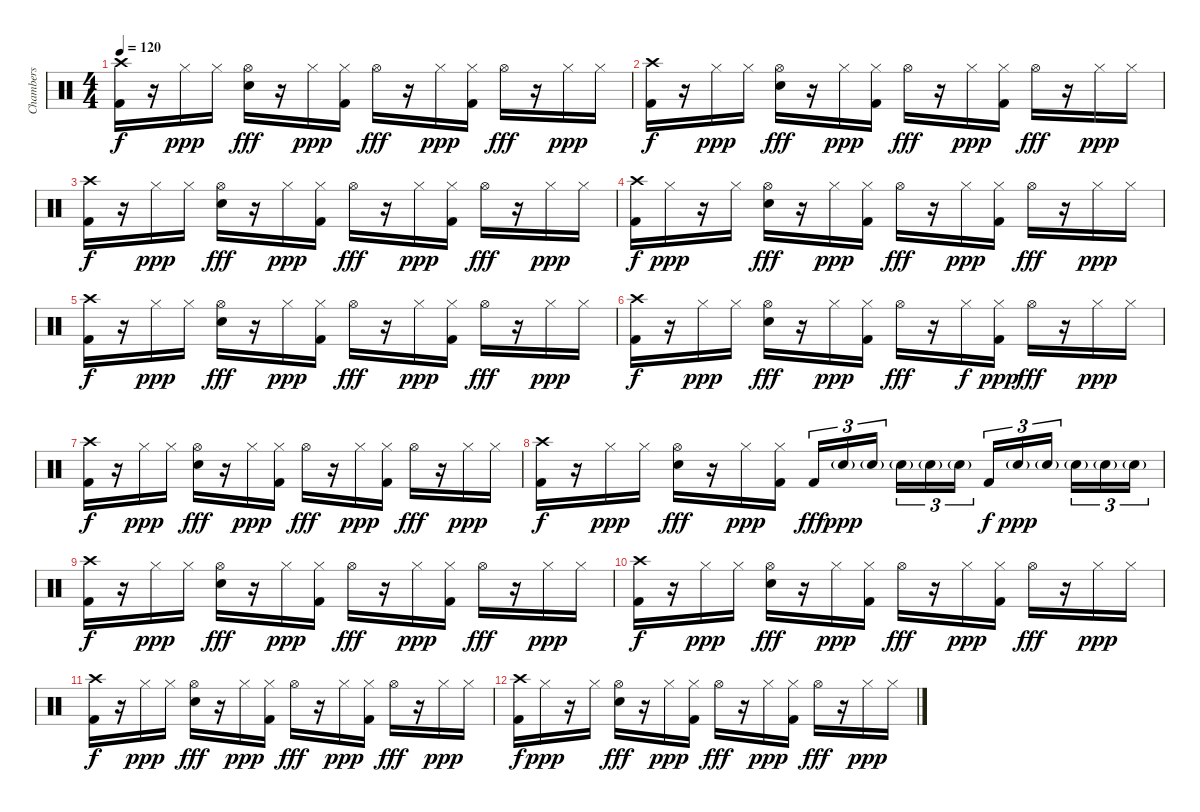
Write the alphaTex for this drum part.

\track ("Chambers" "Chambers") {instrument percussion}
\staff {score}
\articulation defaults
\ts (4 4)
\tempo 120
\clef neutral
\ks c
("Crash high (hit)" "Kick (hit) 2").16{dy f} r.16 "Hi-Hat (closed)".16{dy ppp} "Hi-Hat (closed)".16 ("Hi-Hat (open)" "Electric Snare (hit)").16{dy fff} r.16 "Hi-Hat (closed)".16{dy ppp} ("Hi-Hat (closed)" "Kick (hit) 2").16 "Hi-Hat (open)".16{dy fff} r.16 "Hi-Hat (closed)".16{dy ppp} ("Hi-Hat (closed)" "Kick (hit) 2").16 "Hi-Hat (open)".16{dy fff} r.16 "Hi-Hat (closed)".16{dy ppp} "Hi-Hat (closed)".16 |
("Crash high (hit)" "Kick (hit) 2").16{dy f} r.16 "Hi-Hat (closed)".16{dy ppp} "Hi-Hat (closed)".16 ("Hi-Hat (open)" "Electric Snare (hit)").16{dy fff} r.16 "Hi-Hat (closed)".16{dy ppp} ("Hi-Hat (closed)" "Kick (hit) 2").16 "Hi-Hat (open)".16{dy fff} r.16 "Hi-Hat (closed)".16{dy ppp} ("Hi-Hat (closed)" "Kick (hit) 2").16 "Hi-Hat (open)".16{dy fff} r.16 "Hi-Hat (closed)".16{dy ppp} "Hi-Hat (closed)".16 |
("Crash high (hit)" "Kick (hit) 2").16{dy f} r.16 "Hi-Hat (closed)".16{dy ppp} "Hi-Hat (closed)".16 ("Hi-Hat (open)" "Electric Snare (hit)").16{dy fff} r.16 "Hi-Hat (closed)".16{dy ppp} ("Hi-Hat (closed)" "Kick (hit) 2").16 "Hi-Hat (open)".16{dy fff} r.16 "Hi-Hat (closed)".16{dy ppp} ("Hi-Hat (closed)" "Kick (hit) 2").16 "Hi-Hat (open)".16{dy fff} r.16 "Hi-Hat (closed)".16{dy ppp} "Hi-Hat (closed)".16 |
("Crash high (hit)" "Kick (hit) 2").16{dy f} "Hi-Hat (closed)".16{dy ppp} r.16 "Hi-Hat (closed)".16 ("Hi-Hat (open)" "Electric Snare (hit)").16{dy fff} r.16 "Hi-Hat (closed)".16{dy ppp} ("Hi-Hat (closed)" "Kick (hit) 2").16 "Hi-Hat (open)".16{dy fff} r.16 "Hi-Hat (closed)".16{dy ppp} ("Hi-Hat (closed)" "Kick (hit) 2").16 "Hi-Hat (open)".16{dy fff} r.16 "Hi-Hat (closed)".16{dy ppp} "Hi-Hat (closed)".16 |
("Crash high (hit)" "Kick (hit) 2").16{dy f} r.16 "Hi-Hat (closed)".16{dy ppp} "Hi-Hat (closed)".16 ("Hi-Hat (open)" "Electric Snare (hit)").16{dy fff} r.16 "Hi-Hat (closed)".16{dy ppp} ("Hi-Hat (closed)" "Kick (hit) 2").16 "Hi-Hat (open)".16{dy fff} r.16 "Hi-Hat (closed)".16{dy ppp} ("Hi-Hat (closed)" "Kick (hit) 2").16 "Hi-Hat (open)".16{dy fff} r.16 "Hi-Hat (closed)".16{dy ppp} "Hi-Hat (closed)".16 |
("Crash high (hit)" "Kick (hit) 2").16{dy f} r.16 "Hi-Hat (closed)".16{dy ppp} "Hi-Hat (closed)".16 ("Hi-Hat (open)" "Electric Snare (hit)").16{dy fff} r.16 "Hi-Hat (closed)".16{dy ppp} ("Hi-Hat (closed)" "Kick (hit) 2").16 "Hi-Hat (open)".16{dy fff} r.16 "Hi-Hat (closed)".16{dy f} ("Hi-Hat (closed)" "Kick (hit) 2").16{dy ppp} "Hi-Hat (open)".16{dy fff} r.16 "Hi-Hat (closed)".16{dy ppp} "Hi-Hat (closed)".16 |
("Crash high (hit)" "Kick (hit) 2").16{dy f} r.16 "Hi-Hat (closed)".16{dy ppp} "Hi-Hat (closed)".16 ("Hi-Hat (open)" "Electric Snare (hit)").16{dy fff} r.16 "Hi-Hat (closed)".16{dy ppp} ("Hi-Hat (closed)" "Kick (hit) 2").16 "Hi-Hat (open)".16{dy fff} r.16 "Hi-Hat (closed)".16{dy ppp} ("Hi-Hat (closed)" "Kick (hit) 2").16 "Hi-Hat (open)".16{dy fff} r.16 "Hi-Hat (closed)".16{dy ppp} "Hi-Hat (closed)".16 |
("Crash high (hit)" "Kick (hit) 2").16{dy f} r.16 "Hi-Hat (closed)".16{dy ppp} "Hi-Hat (closed)".16 ("Hi-Hat (open)" "Electric Snare (hit)").16{dy fff} r.16 "Hi-Hat (closed)".16{dy ppp} ("Hi-Hat (closed)" "Kick (hit) 2").16 "Kick (hit) 2".16{tu (3 2) dy fff} "Electric Snare (hit)"{g}.16{tu (3 2) dy ppp} "Electric Snare (hit)"{g}.16{tu (3 2)} "Electric Snare (hit)"{g}.16{tu (3 2)} "Electric Snare (hit)"{g}.16{tu (3 2)} "Electric Snare (hit)"{g}.16{tu (3 2)} "Kick (hit) 2".16{tu (3 2) dy f} "Electric Snare (hit)"{g}.16{tu (3 2) dy ppp} "Electric Snare (hit)"{g}.16{tu (3 2)} "Electric Snare (hit)"{g}.16{tu (3 2)} "Electric Snare (hit)"{g}.16{tu (3 2)} "Electric Snare (hit)"{g}.16{tu (3 2)} |
("Crash high (hit)" "Kick (hit) 2").16{dy f} r.16 "Hi-Hat (closed)".16{dy ppp} "Hi-Hat (closed)".16 ("Hi-Hat (open)" "Electric Snare (hit)").16{dy fff} r.16 "Hi-Hat (closed)".16{dy ppp} ("Hi-Hat (closed)" "Kick (hit) 2").16 "Hi-Hat (open)".16{dy fff} r.16 "Hi-Hat (closed)".16{dy ppp} ("Hi-Hat (closed)" "Kick (hit) 2").16 "Hi-Hat (open)".16{dy fff} r.16 "Hi-Hat (closed)".16{dy ppp} "Hi-Hat (closed)".16 |
("Crash high (hit)" "Kick (hit) 2").16{dy f} r.16 "Hi-Hat (closed)".16{dy ppp} "Hi-Hat (closed)".16 ("Hi-Hat (open)" "Electric Snare (hit)").16{dy fff} r.16 "Hi-Hat (closed)".16{dy ppp} ("Hi-Hat (closed)" "Kick (hit) 2").16 "Hi-Hat (open)".16{dy fff} r.16 "Hi-Hat (closed)".16{dy ppp} ("Hi-Hat (closed)" "Kick (hit) 2").16 "Hi-Hat (open)".16{dy fff} r.16 "Hi-Hat (closed)".16{dy ppp} "Hi-Hat (closed)".16 |
("Crash high (hit)" "Kick (hit) 2").16{dy f} r.16 "Hi-Hat (closed)".16{dy ppp} "Hi-Hat (closed)".16 ("Hi-Hat (open)" "Electric Snare (hit)").16{dy fff} r.16 "Hi-Hat (closed)".16{dy ppp} ("Hi-Hat (closed)" "Kick (hit) 2").16 "Hi-Hat (open)".16{dy fff} r.16 "Hi-Hat (closed)".16{dy ppp} ("Hi-Hat (closed)" "Kick (hit) 2").16 "Hi-Hat (open)".16{dy fff} r.16 "Hi-Hat (closed)".16{dy ppp} "Hi-Hat (closed)".16 |
("Crash high (hit)" "Kick (hit) 2").16{dy f} "Hi-Hat (closed)".16{dy ppp} r.16 "Hi-Hat (closed)".16 ("Hi-Hat (open)" "Electric Snare (hit)").16{dy fff} r.16 "Hi-Hat (closed)".16{dy ppp} ("Hi-Hat (closed)" "Kick (hit) 2").16 "Hi-Hat (open)".16{dy fff} r.16 "Hi-Hat (closed)".16{dy ppp} ("Hi-Hat (closed)" "Kick (hit) 2").16 "Hi-Hat (open)".16{dy fff} r.16 "Hi-Hat (closed)".16{dy ppp} "Hi-Hat (closed)".16
